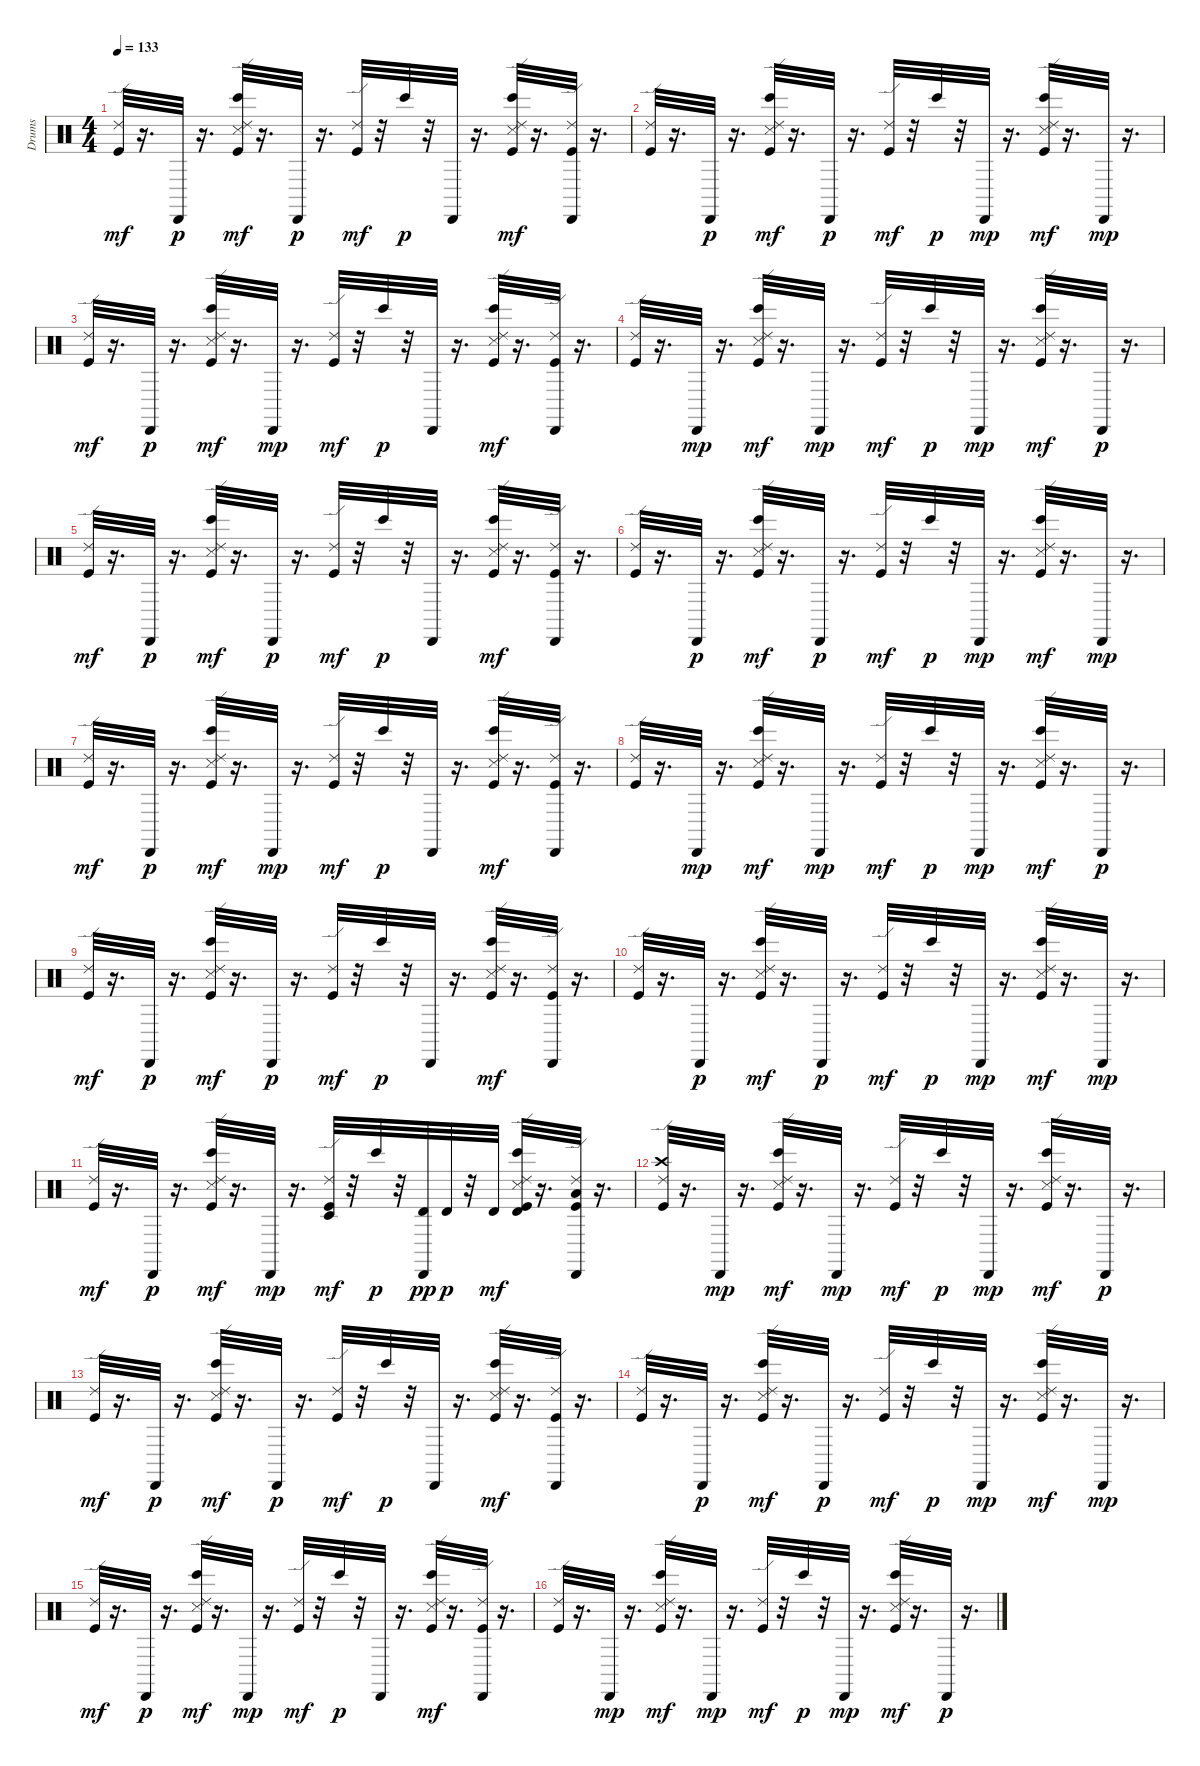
\track ("Drums" "Drums") {instrument percussion}
\staff {score}
\articulation defaults
\ts (4 4)
\tempo 133
\clef neutral
\ks c
("Kick (hit)" "Ride (edge) 2").32{dy mf} r.16{d} "Cabasa (hit)".32{dy p} r.16{d} ("Kick (hit)" "Snare (side stick) 3" "Ride (edge) 2" "Bongo High (hit)").32{dy mf} r.16{d} "Cabasa (hit)".32{dy p} r.16{d} ("Kick (hit)" "Ride (edge) 2").32{dy mf} r.32 "Bongo High (hit)".32{dy p} r.32 "Cabasa (hit)".32 r.16{d} ("Kick (hit)" "Snare (side stick) 3" "Ride (edge) 2" "Bongo High (hit)").32{dy mf} r.16{d} ("Cabasa (hit)" "Kick (hit)" "Ride (edge) 2").32 r.16{d} |
("Kick (hit)" "Ride (edge) 2").32 r.16{d} "Cabasa (hit)".32{dy p} r.16{d} ("Kick (hit)" "Snare (side stick) 3" "Ride (edge) 2" "Bongo High (hit)").32{dy mf} r.16{d} "Cabasa (hit)".32{dy p} r.16{d} ("Kick (hit)" "Ride (edge) 2").32{dy mf} r.32 "Bongo High (hit)".32{dy p} r.32 "Cabasa (hit)".32{dy mp} r.16{d} ("Kick (hit)" "Snare (side stick) 3" "Ride (edge) 2" "Bongo High (hit)").32{dy mf} r.16{d} "Cabasa (hit)".32{dy mp} r.16{d} |
("Kick (hit)" "Ride (edge) 2").32{dy mf} r.16{d} "Cabasa (hit)".32{dy p} r.16{d} ("Kick (hit)" "Snare (side stick) 3" "Ride (edge) 2" "Bongo High (hit)").32{dy mf} r.16{d} "Cabasa (hit)".32{dy mp} r.16{d} ("Kick (hit)" "Ride (edge) 2").32{dy mf} r.32 "Bongo High (hit)".32{dy p} r.32 "Cabasa (hit)".32 r.16{d} ("Kick (hit)" "Snare (side stick) 3" "Ride (edge) 2" "Bongo High (hit)").32{dy mf} r.16{d} ("Cabasa (hit)" "Kick (hit)" "Ride (edge) 2").32 r.16{d} |
("Kick (hit)" "Ride (edge) 2").32 r.16{d} "Cabasa (hit)".32{dy mp} r.16{d} ("Kick (hit)" "Snare (side stick) 3" "Ride (edge) 2" "Bongo High (hit)").32{dy mf} r.16{d} "Cabasa (hit)".32{dy mp} r.16{d} ("Kick (hit)" "Ride (edge) 2").32{dy mf} r.32 "Bongo High (hit)".32{dy p} r.32 "Cabasa (hit)".32{dy mp} r.16{d} ("Kick (hit)" "Snare (side stick) 3" "Ride (edge) 2" "Bongo High (hit)").32{dy mf} r.16{d} "Cabasa (hit)".32{dy p} r.16{d} |
("Kick (hit)" "Ride (edge) 2").32{dy mf} r.16{d} "Cabasa (hit)".32{dy p} r.16{d} ("Kick (hit)" "Snare (side stick) 3" "Ride (edge) 2" "Bongo High (hit)").32{dy mf} r.16{d} "Cabasa (hit)".32{dy p} r.16{d} ("Kick (hit)" "Ride (edge) 2").32{dy mf} r.32 "Bongo High (hit)".32{dy p} r.32 "Cabasa (hit)".32 r.16{d} ("Kick (hit)" "Snare (side stick) 3" "Ride (edge) 2" "Bongo High (hit)").32{dy mf} r.16{d} ("Cabasa (hit)" "Kick (hit)" "Ride (edge) 2").32 r.16{d} |
("Kick (hit)" "Ride (edge) 2").32 r.16{d} "Cabasa (hit)".32{dy p} r.16{d} ("Kick (hit)" "Snare (side stick) 3" "Ride (edge) 2" "Bongo High (hit)").32{dy mf} r.16{d} "Cabasa (hit)".32{dy p} r.16{d} ("Kick (hit)" "Ride (edge) 2").32{dy mf} r.32 "Bongo High (hit)".32{dy p} r.32 "Cabasa (hit)".32{dy mp} r.16{d} ("Kick (hit)" "Snare (side stick) 3" "Ride (edge) 2" "Bongo High (hit)").32{dy mf} r.16{d} "Cabasa (hit)".32{dy mp} r.16{d} |
("Kick (hit)" "Ride (edge) 2").32{dy mf} r.16{d} "Cabasa (hit)".32{dy p} r.16{d} ("Kick (hit)" "Snare (side stick) 3" "Ride (edge) 2" "Bongo High (hit)").32{dy mf} r.16{d} "Cabasa (hit)".32{dy mp} r.16{d} ("Kick (hit)" "Ride (edge) 2").32{dy mf} r.32 "Bongo High (hit)".32{dy p} r.32 "Cabasa (hit)".32 r.16{d} ("Kick (hit)" "Snare (side stick) 3" "Ride (edge) 2" "Bongo High (hit)").32{dy mf} r.16{d} ("Cabasa (hit)" "Kick (hit)" "Ride (edge) 2").32 r.16{d} |
("Kick (hit)" "Ride (edge) 2").32 r.16{d} "Cabasa (hit)".32{dy mp} r.16{d} ("Kick (hit)" "Snare (side stick) 3" "Ride (edge) 2" "Bongo High (hit)").32{dy mf} r.16{d} "Cabasa (hit)".32{dy mp} r.16{d} ("Kick (hit)" "Ride (edge) 2").32{dy mf} r.32 "Bongo High (hit)".32{dy p} r.32 "Cabasa (hit)".32{dy mp} r.16{d} ("Kick (hit)" "Snare (side stick) 3" "Ride (edge) 2" "Bongo High (hit)").32{dy mf} r.16{d} "Cabasa (hit)".32{dy p} r.16{d} |
("Kick (hit)" "Ride (edge) 2").32{dy mf} r.16{d} "Cabasa (hit)".32{dy p} r.16{d} ("Kick (hit)" "Snare (side stick) 3" "Ride (edge) 2" "Bongo High (hit)").32{dy mf} r.16{d} "Cabasa (hit)".32{dy p} r.16{d} ("Kick (hit)" "Ride (edge) 2").32{dy mf} r.32 "Bongo High (hit)".32{dy p} r.32 "Cabasa (hit)".32 r.16{d} ("Kick (hit)" "Snare (side stick) 3" "Ride (edge) 2" "Bongo High (hit)").32{dy mf} r.16{d} ("Cabasa (hit)" "Kick (hit)" "Ride (edge) 2").32 r.16{d} |
("Kick (hit)" "Ride (edge) 2").32 r.16{d} "Cabasa (hit)".32{dy p} r.16{d} ("Kick (hit)" "Snare (side stick) 3" "Ride (edge) 2" "Bongo High (hit)").32{dy mf} r.16{d} "Cabasa (hit)".32{dy p} r.16{d} ("Kick (hit)" "Ride (edge) 2").32{dy mf} r.32 "Bongo High (hit)".32{dy p} r.32 "Cabasa (hit)".32{dy mp} r.16{d} ("Kick (hit)" "Snare (side stick) 3" "Ride (edge) 2" "Bongo High (hit)").32{dy mf} r.16{d} "Cabasa (hit)".32{dy mp} r.16{d} |
("Kick (hit)" "Ride (edge) 2").32{dy mf} r.16{d} "Cabasa (hit)".32{dy p} r.16{d} ("Kick (hit)" "Snare (side stick) 3" "Ride (edge) 2" "Bongo High (hit)").32{dy mf} r.16{d} "Cabasa (hit)".32{dy mp} r.16{d} ("Kick (hit)" "Ride (edge) 2" "Timbale low (hit)").32{dy mf} r.32 "Bongo High (hit)".32{dy p} r.32 ("Cabasa (hit)" "Timbale high (hit)").32{dy pp} "Timbale high (hit)".32{dy p} r.32 "Timbale high (hit)".32{dy mf} ("Kick (hit)" "Snare (side stick) 3" "Ride (edge) 2" "Bongo High (hit)" "Timbale high (hit)").32 r.16{d} ("Cabasa (hit)" "Kick (hit)" "Low Tom (hit)" "Ride (edge) 2").32 r.16{d} |
("Kick (hit)" "Crash high (hit)" "Ride (edge) 2").32 r.16{d} "Cabasa (hit)".32{dy mp} r.16{d} ("Kick (hit)" "Snare (side stick) 3" "Ride (edge) 2" "Bongo High (hit)").32{dy mf} r.16{d} "Cabasa (hit)".32{dy mp} r.16{d} ("Kick (hit)" "Ride (edge) 2").32{dy mf} r.32 "Bongo High (hit)".32{dy p} r.32 "Cabasa (hit)".32{dy mp} r.16{d} ("Kick (hit)" "Snare (side stick) 3" "Ride (edge) 2" "Bongo High (hit)").32{dy mf} r.16{d} "Cabasa (hit)".32{dy p} r.16{d} |
("Kick (hit)" "Ride (edge) 2").32{dy mf} r.16{d} "Cabasa (hit)".32{dy p} r.16{d} ("Kick (hit)" "Snare (side stick) 3" "Ride (edge) 2" "Bongo High (hit)").32{dy mf} r.16{d} "Cabasa (hit)".32{dy p} r.16{d} ("Kick (hit)" "Ride (edge) 2").32{dy mf} r.32 "Bongo High (hit)".32{dy p} r.32 "Cabasa (hit)".32 r.16{d} ("Kick (hit)" "Snare (side stick) 3" "Ride (edge) 2" "Bongo High (hit)").32{dy mf} r.16{d} ("Cabasa (hit)" "Kick (hit)" "Ride (edge) 2").32 r.16{d} |
("Kick (hit)" "Ride (edge) 2").32 r.16{d} "Cabasa (hit)".32{dy p} r.16{d} ("Kick (hit)" "Snare (side stick) 3" "Ride (edge) 2" "Bongo High (hit)").32{dy mf} r.16{d} "Cabasa (hit)".32{dy p} r.16{d} ("Kick (hit)" "Ride (edge) 2").32{dy mf} r.32 "Bongo High (hit)".32{dy p} r.32 "Cabasa (hit)".32{dy mp} r.16{d} ("Kick (hit)" "Snare (side stick) 3" "Ride (edge) 2" "Bongo High (hit)").32{dy mf} r.16{d} "Cabasa (hit)".32{dy mp} r.16{d} |
("Kick (hit)" "Ride (edge) 2").32{dy mf} r.16{d} "Cabasa (hit)".32{dy p} r.16{d} ("Kick (hit)" "Snare (side stick) 3" "Ride (edge) 2" "Bongo High (hit)").32{dy mf} r.16{d} "Cabasa (hit)".32{dy mp} r.16{d} ("Kick (hit)" "Ride (edge) 2").32{dy mf} r.32 "Bongo High (hit)".32{dy p} r.32 "Cabasa (hit)".32 r.16{d} ("Kick (hit)" "Snare (side stick) 3" "Ride (edge) 2" "Bongo High (hit)").32{dy mf} r.16{d} ("Cabasa (hit)" "Kick (hit)" "Ride (edge) 2").32 r.16{d} |
("Kick (hit)" "Ride (edge) 2").32 r.16{d} "Cabasa (hit)".32{dy mp} r.16{d} ("Kick (hit)" "Snare (side stick) 3" "Ride (edge) 2" "Bongo High (hit)").32{dy mf} r.16{d} "Cabasa (hit)".32{dy mp} r.16{d} ("Kick (hit)" "Ride (edge) 2").32{dy mf} r.32 "Bongo High (hit)".32{dy p} r.32 "Cabasa (hit)".32{dy mp} r.16{d} ("Kick (hit)" "Snare (side stick) 3" "Ride (edge) 2" "Bongo High (hit)").32{dy mf} r.16{d} "Cabasa (hit)".32{dy p} r.16{d}
